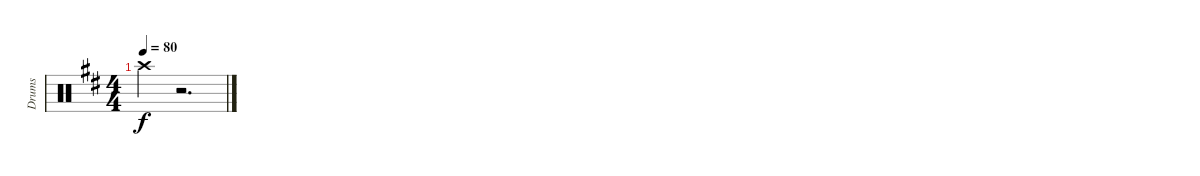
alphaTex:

\track ("Drums" "Drums") {instrument percussion}
\staff {score}
\articulation defaults
\ts (4 4)
\tempo 80
\clef neutral
\ks d "Crash high (hit)".4{dy f}
r.2{d}
